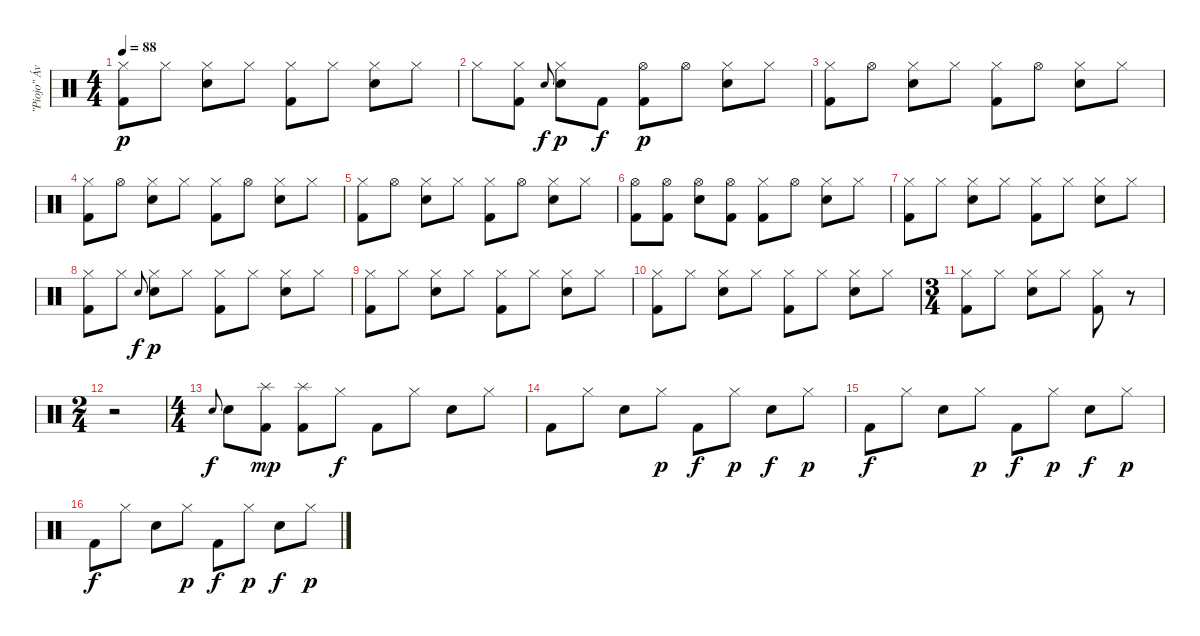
\track ("\"Piojo\" Ávalos" "\"Piojo\" Áv") {instrument percussion}
\staff {score}
\articulation defaults
\ts (4 4)
\tempo 88
\clef neutral
\ks c
("Hi-Hat (closed)" "Kick (hit) 2").8{dy p} "Hi-Hat (closed)".8 ("Hi-Hat (closed)" "Snare (hit) 2").8 "Hi-Hat (closed)".8 ("Hi-Hat (closed)" "Kick (hit) 2").8 "Hi-Hat (closed)".8 ("Hi-Hat (closed)" "Snare (hit) 2").8 "Hi-Hat (closed)".8 |
"Hi-Hat (closed)".8 ("Hi-Hat (closed)" "Kick (hit) 2").8 "Snare (hit) 2".8{gr onbeat dy f} ("Hi-Hat (closed)" "Snare (hit) 2").8{dy p} "Kick (hit) 2".8{dy f} ("Hi-Hat (open)" "Kick (hit) 2").8{dy p} "Hi-Hat (open)".8 ("Hi-Hat (closed)" "Snare (hit) 2").8 "Hi-Hat (closed)".8 |
("Hi-Hat (closed)" "Kick (hit) 2").8 "Hi-Hat (open)".8 ("Hi-Hat (closed)" "Snare (hit) 2").8 "Hi-Hat (closed)".8 ("Hi-Hat (closed)" "Kick (hit) 2").8 "Hi-Hat (open)".8 ("Hi-Hat (closed)" "Snare (hit) 2").8 "Hi-Hat (closed)".8 |
("Hi-Hat (closed)" "Kick (hit) 2").8 "Hi-Hat (open)".8 ("Hi-Hat (closed)" "Snare (hit) 2").8 "Hi-Hat (closed)".8 ("Hi-Hat (closed)" "Kick (hit) 2").8 "Hi-Hat (open)".8 ("Hi-Hat (closed)" "Snare (hit) 2").8 "Hi-Hat (closed)".8 |
("Hi-Hat (closed)" "Kick (hit) 2").8 "Hi-Hat (open)".8 ("Hi-Hat (closed)" "Snare (hit) 2").8 "Hi-Hat (closed)".8 ("Hi-Hat (closed)" "Kick (hit) 2").8 "Hi-Hat (open)".8 ("Hi-Hat (closed)" "Snare (hit) 2").8 "Hi-Hat (closed)".8 |
("Hi-Hat (open)" "Kick (hit) 2").8 ("Hi-Hat (open)" "Kick (hit) 2").8 ("Hi-Hat (open)" "Snare (hit) 2").8 ("Hi-Hat (open)" "Kick (hit) 2").8 ("Hi-Hat (closed)" "Kick (hit) 2").8 "Hi-Hat (open)".8 ("Hi-Hat (closed)" "Snare (hit) 2").8 "Hi-Hat (closed)".8 |
("Hi-Hat (closed)" "Kick (hit) 2").8 "Hi-Hat (closed)".8 ("Hi-Hat (closed)" "Snare (hit) 2").8 "Hi-Hat (closed)".8 ("Hi-Hat (closed)" "Kick (hit) 2").8 "Hi-Hat (closed)".8 ("Hi-Hat (closed)" "Snare (hit) 2").8 "Hi-Hat (closed)".8 |
("Hi-Hat (closed)" "Kick (hit) 2").8 "Hi-Hat (closed)".8 "Snare (hit) 2".8{gr onbeat dy f} ("Hi-Hat (closed)" "Snare (hit) 2").8{dy p} "Hi-Hat (closed)".8 ("Hi-Hat (closed)" "Kick (hit) 2").8 "Hi-Hat (closed)".8 ("Hi-Hat (closed)" "Snare (hit) 2").8 "Hi-Hat (closed)".8 |
("Hi-Hat (closed)" "Kick (hit) 2").8 "Hi-Hat (closed)".8 ("Hi-Hat (closed)" "Snare (hit) 2").8 "Hi-Hat (closed)".8 ("Hi-Hat (closed)" "Kick (hit) 2").8 "Hi-Hat (closed)".8 ("Hi-Hat (closed)" "Snare (hit) 2").8 "Hi-Hat (closed)".8 |
("Hi-Hat (closed)" "Kick (hit) 2").8 "Hi-Hat (closed)".8 ("Hi-Hat (closed)" "Snare (hit) 2").8 "Hi-Hat (closed)".8 ("Hi-Hat (closed)" "Kick (hit) 2").8 "Hi-Hat (closed)".8 ("Hi-Hat (closed)" "Snare (hit) 2").8 "Hi-Hat (closed)".8 |
\ts (3 4)
("Hi-Hat (closed)" "Kick (hit) 2").8 "Hi-Hat (closed)".8 ("Hi-Hat (closed)" "Snare (hit) 2").8 "Hi-Hat (closed)".8 ("Hi-Hat (closed)" "Kick (hit) 2").8 r.8 |
\ts (2 4)
r.2 |
\ts (4 4)
"Snare (hit) 2".8{gr onbeat dy f} "Snare (hit) 2".8 ("Splash (hit)" "Kick (hit) 2").8{dy mp} ("Splash (hit)" "Kick (hit) 2").8 "Hi-Hat (closed)".8{dy f} "Kick (hit) 2".8 "Hi-Hat (closed)".8 "Snare (hit) 2".8 "Hi-Hat (closed)".8 |
"Kick (hit) 2".8 "Hi-Hat (closed)".8 "Snare (hit) 2".8 "Hi-Hat (closed)".8{dy p} "Kick (hit) 2".8{dy f} "Hi-Hat (closed)".8{dy p} "Snare (hit) 2".8{dy f} "Hi-Hat (closed)".8{dy p} |
"Kick (hit) 2".8{dy f} "Hi-Hat (closed)".8 "Snare (hit) 2".8 "Hi-Hat (closed)".8{dy p} "Kick (hit) 2".8{dy f} "Hi-Hat (closed)".8{dy p} "Snare (hit) 2".8{dy f} "Hi-Hat (closed)".8{dy p} |
"Kick (hit) 2".8{dy f} "Hi-Hat (closed)".8 "Snare (hit) 2".8 "Hi-Hat (closed)".8{dy p} "Kick (hit) 2".8{dy f} "Hi-Hat (closed)".8{dy p} "Snare (hit) 2".8{dy f} "Hi-Hat (closed)".8{dy p}
